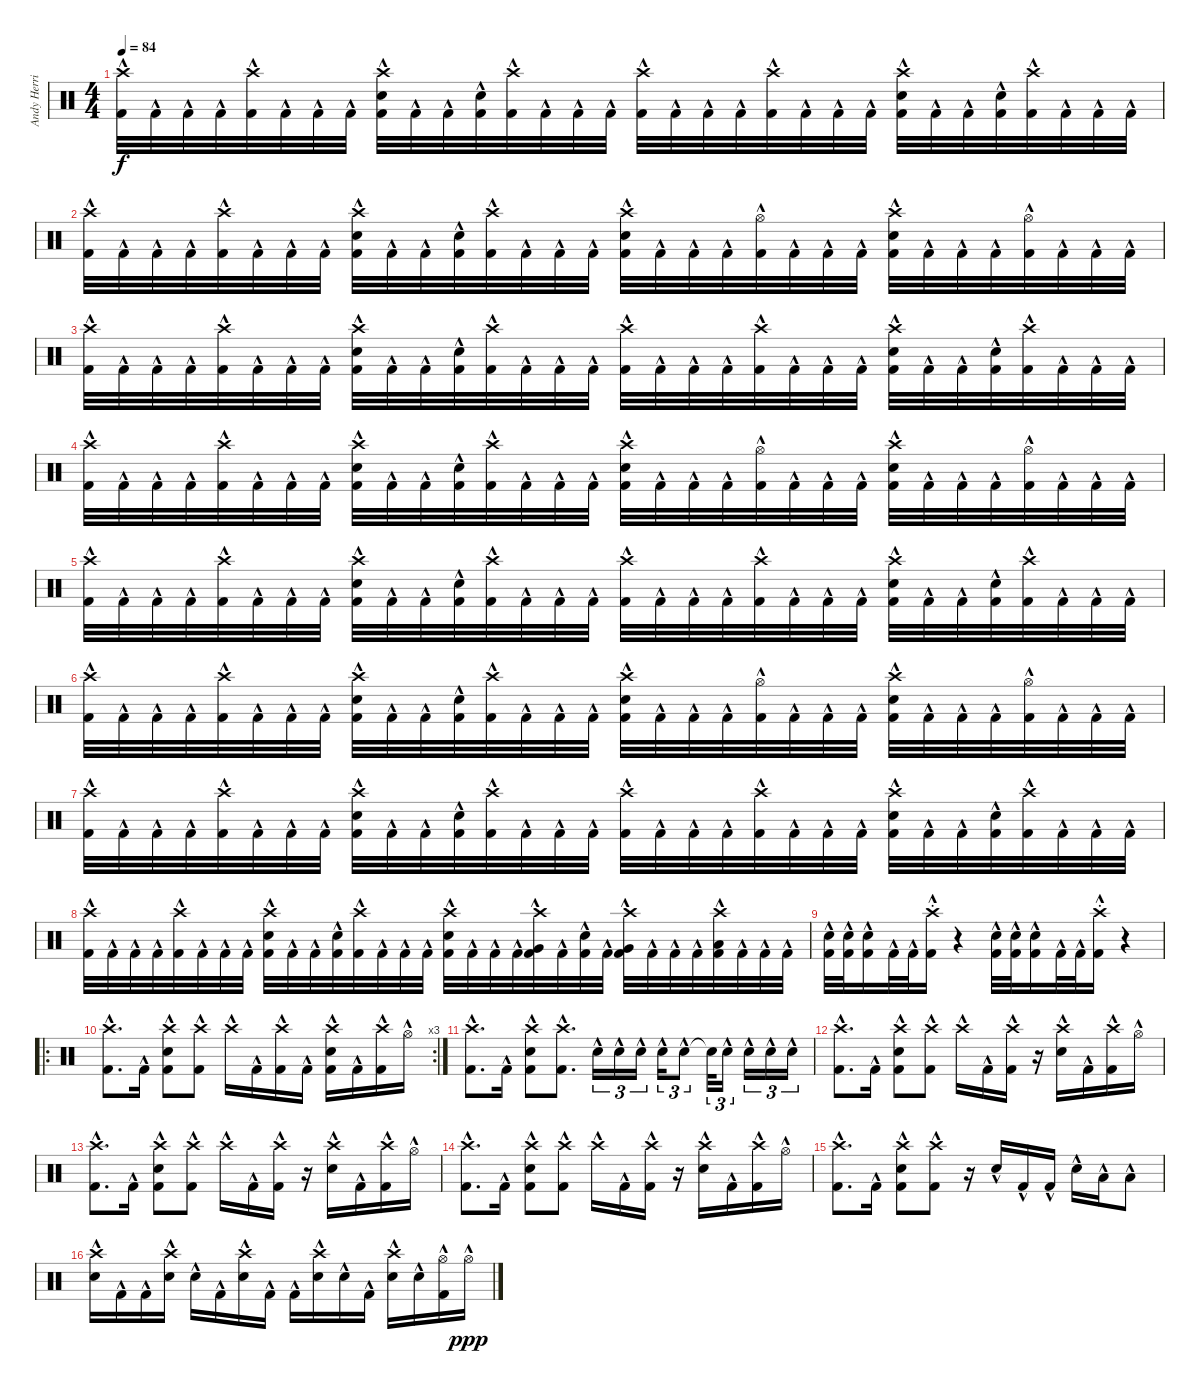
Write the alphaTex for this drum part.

\track ("Andy Herrick" "Andy Herri") {instrument percussion}
\staff {score}
\articulation defaults
\ts (4 4)
\tempo 84
\clef neutral
\ks c
("Crash high (hit)"{hac} "Kick (hit) 2"{hac}).32{dy f} "Kick (hit) 2"{hac}.32 "Kick (hit) 2"{hac}.32 "Kick (hit) 2"{hac}.32 ("Crash high (hit)"{hac} "Kick (hit) 2"{hac}).32 "Kick (hit) 2"{hac}.32 "Kick (hit) 2"{hac}.32 "Kick (hit) 2"{hac}.32 ("Crash high (hit)"{hac} "Electric Snare (hit)"{hac} "Kick (hit) 2"{hac}).32 "Kick (hit) 2"{hac}.32 "Kick (hit) 2"{hac}.32 ("Electric Snare (hit)"{hac} "Kick (hit) 2"{hac}).32 ("Crash high (hit)"{hac} "Kick (hit) 2"{hac}).32 "Kick (hit) 2"{hac}.32 "Kick (hit) 2"{hac}.32 "Kick (hit) 2"{hac}.32 ("Crash high (hit)"{hac} "Kick (hit) 2"{hac}).32 "Kick (hit) 2"{hac}.32 "Kick (hit) 2"{hac}.32 "Kick (hit) 2"{hac}.32 ("Crash high (hit)"{hac} "Kick (hit) 2"{hac}).32 "Kick (hit) 2"{hac}.32 "Kick (hit) 2"{hac}.32 "Kick (hit) 2"{hac}.32 ("Crash high (hit)"{hac} "Electric Snare (hit)"{hac} "Kick (hit) 2"{hac}).32 "Kick (hit) 2"{hac}.32 "Kick (hit) 2"{hac}.32 ("Electric Snare (hit)"{hac} "Kick (hit) 2"{hac}).32 ("Crash high (hit)"{hac} "Kick (hit) 2"{hac}).32 "Kick (hit) 2"{hac}.32 "Kick (hit) 2"{hac}.32 "Kick (hit) 2"{hac}.32 |
("Crash high (hit)"{hac} "Kick (hit) 2"{hac}).32 "Kick (hit) 2"{hac}.32 "Kick (hit) 2"{hac}.32 "Kick (hit) 2"{hac}.32 ("Crash high (hit)"{hac} "Kick (hit) 2"{hac}).32 "Kick (hit) 2"{hac}.32 "Kick (hit) 2"{hac}.32 "Kick (hit) 2"{hac}.32 ("Crash high (hit)"{hac} "Electric Snare (hit)"{hac} "Kick (hit) 2"{hac}).32 "Kick (hit) 2"{hac}.32 "Kick (hit) 2"{hac}.32 ("Electric Snare (hit)"{hac} "Kick (hit) 2"{hac}).32 ("Crash high (hit)"{hac} "Kick (hit) 2"{hac}).32 "Kick (hit) 2"{hac}.32 "Kick (hit) 2"{hac}.32 "Kick (hit) 2"{hac}.32 ("Crash high (hit)"{hac} "Electric Snare (hit)"{hac} "Kick (hit) 2"{hac}).32 "Kick (hit) 2"{hac}.32 "Kick (hit) 2"{hac}.32 "Kick (hit) 2"{hac}.32 ("Hi-Hat (open)"{hac} "Kick (hit) 2"{hac}).32 "Kick (hit) 2"{hac}.32 "Kick (hit) 2"{hac}.32 "Kick (hit) 2"{hac}.32 ("Crash high (hit)"{hac} "Electric Snare (hit)"{hac} "Kick (hit) 2"{hac}).32 "Kick (hit) 2"{hac}.32 "Kick (hit) 2"{hac}.32 "Kick (hit) 2"{hac}.32 ("Hi-Hat (open)"{hac} "Kick (hit) 2"{hac}).32 "Kick (hit) 2"{hac}.32 "Kick (hit) 2"{hac}.32 "Kick (hit) 2"{hac}.32 |
("Crash high (hit)"{hac} "Kick (hit) 2"{hac}).32 "Kick (hit) 2"{hac}.32 "Kick (hit) 2"{hac}.32 "Kick (hit) 2"{hac}.32 ("Crash high (hit)"{hac} "Kick (hit) 2"{hac}).32 "Kick (hit) 2"{hac}.32 "Kick (hit) 2"{hac}.32 "Kick (hit) 2"{hac}.32 ("Crash high (hit)"{hac} "Electric Snare (hit)"{hac} "Kick (hit) 2"{hac}).32 "Kick (hit) 2"{hac}.32 "Kick (hit) 2"{hac}.32 ("Electric Snare (hit)"{hac} "Kick (hit) 2"{hac}).32 ("Crash high (hit)"{hac} "Kick (hit) 2"{hac}).32 "Kick (hit) 2"{hac}.32 "Kick (hit) 2"{hac}.32 "Kick (hit) 2"{hac}.32 ("Crash high (hit)"{hac} "Kick (hit) 2"{hac}).32 "Kick (hit) 2"{hac}.32 "Kick (hit) 2"{hac}.32 "Kick (hit) 2"{hac}.32 ("Crash high (hit)"{hac} "Kick (hit) 2"{hac}).32 "Kick (hit) 2"{hac}.32 "Kick (hit) 2"{hac}.32 "Kick (hit) 2"{hac}.32 ("Crash high (hit)"{hac} "Electric Snare (hit)"{hac} "Kick (hit) 2"{hac}).32 "Kick (hit) 2"{hac}.32 "Kick (hit) 2"{hac}.32 ("Electric Snare (hit)"{hac} "Kick (hit) 2"{hac}).32 ("Crash high (hit)"{hac} "Kick (hit) 2"{hac}).32 "Kick (hit) 2"{hac}.32 "Kick (hit) 2"{hac}.32 "Kick (hit) 2"{hac}.32 |
("Crash high (hit)"{hac} "Kick (hit) 2"{hac}).32 "Kick (hit) 2"{hac}.32 "Kick (hit) 2"{hac}.32 "Kick (hit) 2"{hac}.32 ("Crash high (hit)"{hac} "Kick (hit) 2"{hac}).32 "Kick (hit) 2"{hac}.32 "Kick (hit) 2"{hac}.32 "Kick (hit) 2"{hac}.32 ("Crash high (hit)"{hac} "Electric Snare (hit)"{hac} "Kick (hit) 2"{hac}).32 "Kick (hit) 2"{hac}.32 "Kick (hit) 2"{hac}.32 ("Electric Snare (hit)"{hac} "Kick (hit) 2"{hac}).32 ("Crash high (hit)"{hac} "Kick (hit) 2"{hac}).32 "Kick (hit) 2"{hac}.32 "Kick (hit) 2"{hac}.32 "Kick (hit) 2"{hac}.32 ("Crash high (hit)"{hac} "Electric Snare (hit)"{hac} "Kick (hit) 2"{hac}).32 "Kick (hit) 2"{hac}.32 "Kick (hit) 2"{hac}.32 "Kick (hit) 2"{hac}.32 ("Hi-Hat (open)"{hac} "Kick (hit) 2"{hac}).32 "Kick (hit) 2"{hac}.32 "Kick (hit) 2"{hac}.32 "Kick (hit) 2"{hac}.32 ("Crash high (hit)"{hac} "Electric Snare (hit)"{hac} "Kick (hit) 2"{hac}).32 "Kick (hit) 2"{hac}.32 "Kick (hit) 2"{hac}.32 "Kick (hit) 2"{hac}.32 ("Hi-Hat (open)"{hac} "Kick (hit) 2"{hac}).32 "Kick (hit) 2"{hac}.32 "Kick (hit) 2"{hac}.32 "Kick (hit) 2"{hac}.32 |
("Crash high (hit)"{hac} "Kick (hit) 2"{hac}).32 "Kick (hit) 2"{hac}.32 "Kick (hit) 2"{hac}.32 "Kick (hit) 2"{hac}.32 ("Crash high (hit)"{hac} "Kick (hit) 2"{hac}).32 "Kick (hit) 2"{hac}.32 "Kick (hit) 2"{hac}.32 "Kick (hit) 2"{hac}.32 ("Crash high (hit)"{hac} "Electric Snare (hit)"{hac} "Kick (hit) 2"{hac}).32 "Kick (hit) 2"{hac}.32 "Kick (hit) 2"{hac}.32 ("Electric Snare (hit)"{hac} "Kick (hit) 2"{hac}).32 ("Crash high (hit)"{hac} "Kick (hit) 2"{hac}).32 "Kick (hit) 2"{hac}.32 "Kick (hit) 2"{hac}.32 "Kick (hit) 2"{hac}.32 ("Crash high (hit)"{hac} "Kick (hit) 2"{hac}).32 "Kick (hit) 2"{hac}.32 "Kick (hit) 2"{hac}.32 "Kick (hit) 2"{hac}.32 ("Crash high (hit)"{hac} "Kick (hit) 2"{hac}).32 "Kick (hit) 2"{hac}.32 "Kick (hit) 2"{hac}.32 "Kick (hit) 2"{hac}.32 ("Crash high (hit)"{hac} "Electric Snare (hit)"{hac} "Kick (hit) 2"{hac}).32 "Kick (hit) 2"{hac}.32 "Kick (hit) 2"{hac}.32 ("Electric Snare (hit)"{hac} "Kick (hit) 2"{hac}).32 ("Crash high (hit)"{hac} "Kick (hit) 2"{hac}).32 "Kick (hit) 2"{hac}.32 "Kick (hit) 2"{hac}.32 "Kick (hit) 2"{hac}.32 |
("Crash high (hit)"{hac} "Kick (hit) 2"{hac}).32 "Kick (hit) 2"{hac}.32 "Kick (hit) 2"{hac}.32 "Kick (hit) 2"{hac}.32 ("Crash high (hit)"{hac} "Kick (hit) 2"{hac}).32 "Kick (hit) 2"{hac}.32 "Kick (hit) 2"{hac}.32 "Kick (hit) 2"{hac}.32 ("Crash high (hit)"{hac} "Electric Snare (hit)"{hac} "Kick (hit) 2"{hac}).32 "Kick (hit) 2"{hac}.32 "Kick (hit) 2"{hac}.32 ("Electric Snare (hit)"{hac} "Kick (hit) 2"{hac}).32 ("Crash high (hit)"{hac} "Kick (hit) 2"{hac}).32 "Kick (hit) 2"{hac}.32 "Kick (hit) 2"{hac}.32 "Kick (hit) 2"{hac}.32 ("Crash high (hit)"{hac} "Electric Snare (hit)"{hac} "Kick (hit) 2"{hac}).32 "Kick (hit) 2"{hac}.32 "Kick (hit) 2"{hac}.32 "Kick (hit) 2"{hac}.32 ("Hi-Hat (open)"{hac} "Kick (hit) 2"{hac}).32 "Kick (hit) 2"{hac}.32 "Kick (hit) 2"{hac}.32 "Kick (hit) 2"{hac}.32 ("Crash high (hit)"{hac} "Electric Snare (hit)"{hac} "Kick (hit) 2"{hac}).32 "Kick (hit) 2"{hac}.32 "Kick (hit) 2"{hac}.32 "Kick (hit) 2"{hac}.32 ("Hi-Hat (open)"{hac} "Kick (hit) 2"{hac}).32 "Kick (hit) 2"{hac}.32 "Kick (hit) 2"{hac}.32 "Kick (hit) 2"{hac}.32 |
("Crash high (hit)"{hac} "Kick (hit) 2"{hac}).32 "Kick (hit) 2"{hac}.32 "Kick (hit) 2"{hac}.32 "Kick (hit) 2"{hac}.32 ("Crash high (hit)"{hac} "Kick (hit) 2"{hac}).32 "Kick (hit) 2"{hac}.32 "Kick (hit) 2"{hac}.32 "Kick (hit) 2"{hac}.32 ("Crash high (hit)"{hac} "Electric Snare (hit)"{hac} "Kick (hit) 2"{hac}).32 "Kick (hit) 2"{hac}.32 "Kick (hit) 2"{hac}.32 ("Electric Snare (hit)"{hac} "Kick (hit) 2"{hac}).32 ("Crash high (hit)"{hac} "Kick (hit) 2"{hac}).32 "Kick (hit) 2"{hac}.32 "Kick (hit) 2"{hac}.32 "Kick (hit) 2"{hac}.32 ("Crash high (hit)"{hac} "Kick (hit) 2"{hac}).32 "Kick (hit) 2"{hac}.32 "Kick (hit) 2"{hac}.32 "Kick (hit) 2"{hac}.32 ("Crash high (hit)"{hac} "Kick (hit) 2"{hac}).32 "Kick (hit) 2"{hac}.32 "Kick (hit) 2"{hac}.32 "Kick (hit) 2"{hac}.32 ("Crash high (hit)"{hac} "Electric Snare (hit)"{hac} "Kick (hit) 2"{hac}).32 "Kick (hit) 2"{hac}.32 "Kick (hit) 2"{hac}.32 ("Electric Snare (hit)"{hac} "Kick (hit) 2"{hac}).32 ("Crash high (hit)"{hac} "Kick (hit) 2"{hac}).32 "Kick (hit) 2"{hac}.32 "Kick (hit) 2"{hac}.32 "Kick (hit) 2"{hac}.32 |
("Crash high (hit)"{hac} "Kick (hit) 2"{hac}).32 "Kick (hit) 2"{hac}.32 "Kick (hit) 2"{hac}.32 "Kick (hit) 2"{hac}.32 ("Crash high (hit)"{hac} "Kick (hit) 2"{hac}).32 "Kick (hit) 2"{hac}.32 "Kick (hit) 2"{hac}.32 "Kick (hit) 2"{hac}.32 ("Crash high (hit)"{hac} "Electric Snare (hit)"{hac} "Kick (hit) 2"{hac}).32 "Kick (hit) 2"{hac}.32 "Kick (hit) 2"{hac}.32 ("Electric Snare (hit)"{hac} "Kick (hit) 2"{hac}).32 ("Crash high (hit)"{hac} "Kick (hit) 2"{hac}).32 "Kick (hit) 2"{hac}.32 "Kick (hit) 2"{hac}.32 "Kick (hit) 2"{hac}.32 ("Crash high (hit)"{hac} "Electric Snare (hit)"{hac} "Kick (hit) 2"{hac}).32 "Kick (hit) 2"{hac}.32 "Kick (hit) 2"{hac}.32 "Kick (hit) 2"{hac}.32 ("Crash high (hit)"{hac} "Very Low Tom (hit)"{hac} "Kick (hit) 2"{hac}).32 "Kick (hit) 2"{hac}.32 ("Electric Snare (hit)"{hac} "Kick (hit) 2"{hac}).32 "Kick (hit) 2"{hac}.32 ("Crash high (hit)"{hac} "Very Low Tom (hit)"{hac} "Kick (hit) 2"{hac}).32 "Kick (hit) 2"{hac}.32 "Kick (hit) 2"{hac}.32 "Kick (hit) 2"{hac}.32 ("Crash high (hit)"{hac} "Low Floor Tom (hit)"{hac} "Kick (hit) 2"{hac}).32 "Kick (hit) 2"{hac}.32 "Kick (hit) 2"{hac}.32 "Kick (hit) 2"{hac}.32 |
("Electric Snare (hit)"{hac} "Kick (hit) 2"{hac}).32 ("Electric Snare (hit)"{hac} "Kick (hit) 2"{hac}).32 ("Electric Snare (hit)"{hac} "Kick (hit) 2"{hac}).16 "Kick (hit) 2"{hac}.32 "Kick (hit) 2"{hac}.32 ("Crash high (hit)"{hac st} "Kick (hit) 2"{hac}).16 r.4 ("Electric Snare (hit)"{hac} "Kick (hit) 2"{hac}).32 ("Electric Snare (hit)"{hac} "Kick (hit) 2"{hac}).32 ("Electric Snare (hit)"{hac} "Kick (hit) 2"{hac}).16 "Kick (hit) 2"{hac}.32 "Kick (hit) 2"{hac}.32 ("Crash high (hit)"{hac st} "Kick (hit) 2"{hac}).16 r.4 |
\ro
\rc 3
("Crash high (hit)"{hac} "Kick (hit) 2"{hac}).8{d} "Kick (hit) 2"{hac}.16 ("Crash high (hit)"{hac} "Electric Snare (hit)"{hac} "Kick (hit) 2"{hac}).8 ("Crash high (hit)"{hac} "Kick (hit) 2"{hac}).8 "Crash high (hit)"{hac}.16 "Kick (hit) 2"{hac}.16 ("Crash high (hit)"{hac} "Kick (hit) 2"{hac}).16 "Kick (hit) 2"{hac}.16 ("Crash high (hit)"{hac} "Electric Snare (hit)"{hac} "Kick (hit) 2"{hac}).16 "Kick (hit) 2"{hac}.16 ("Crash high (hit)"{hac} "Kick (hit) 2"{hac}).16 "Hi-Hat (open)"{hac}.16 |
("Crash high (hit)"{hac} "Kick (hit) 2"{hac}).8{d} "Kick (hit) 2"{hac}.16 ("Crash high (hit)"{hac} "Electric Snare (hit)"{hac} "Kick (hit) 2"{hac}).8 ("Crash high (hit)"{hac} "Kick (hit) 2"{hac}).8{d} "Electric Snare (hit)"{hac}.16{tu (3 2)} "Electric Snare (hit)"{hac}.16{tu (3 2)} "Electric Snare (hit)"{hac}.16{tu (3 2) beam splitsecondary} "Electric Snare (hit)"{hac}.16{tu (3 2)} "Electric Snare (hit)"{hac}.8{tu (3 2)} "Electric Snare (hit)"{t}.32{tu (3 2)} "Electric Snare (hit)"{hac}.16{tu (3 2) beam splitsecondary} "Electric Snare (hit)"{hac}.16{tu (3 2)} "Electric Snare (hit)"{hac}.16{tu (3 2)} "Electric Snare (hit)"{hac}.16{tu (3 2)} |
("Crash high (hit)"{hac} "Kick (hit) 2"{hac}).8{d} "Kick (hit) 2"{hac}.16 ("Crash high (hit)"{hac} "Electric Snare (hit)"{hac} "Kick (hit) 2"{hac}).8 ("Crash high (hit)"{hac} "Kick (hit) 2"{hac}).8 "Crash high (hit)"{hac}.16 "Kick (hit) 2"{hac}.16 ("Crash high (hit)"{hac} "Kick (hit) 2"{hac}).16 r.16 ("Crash high (hit)"{hac} "Electric Snare (hit)"{hac}).16 "Kick (hit) 2"{hac}.16 ("Crash high (hit)"{hac} "Kick (hit) 2"{hac}).16 "Hi-Hat (open)"{hac}.16 |
("Crash high (hit)"{hac} "Kick (hit) 2"{hac}).8{d} "Kick (hit) 2"{hac}.16 ("Crash high (hit)"{hac} "Electric Snare (hit)"{hac} "Kick (hit) 2"{hac}).8 ("Crash high (hit)"{hac} "Kick (hit) 2"{hac}).8 "Crash high (hit)"{hac}.16 "Kick (hit) 2"{hac}.16 ("Crash high (hit)"{hac} "Kick (hit) 2"{hac}).16 r.16 ("Crash high (hit)"{hac} "Electric Snare (hit)"{hac}).16 "Kick (hit) 2"{hac}.16 ("Crash high (hit)"{hac} "Kick (hit) 2"{hac}).16 "Hi-Hat (open)"{hac}.16 |
("Crash high (hit)"{hac} "Kick (hit) 2"{hac}).8{d} "Kick (hit) 2"{hac}.16 ("Crash high (hit)"{hac} "Electric Snare (hit)"{hac} "Kick (hit) 2"{hac}).8 ("Crash high (hit)"{hac} "Kick (hit) 2"{hac}).8 "Crash high (hit)"{hac}.16 "Kick (hit) 2"{hac}.16 ("Crash high (hit)"{hac} "Kick (hit) 2"{hac}).16 r.16 ("Crash high (hit)"{hac} "Electric Snare (hit)"{hac}).16 "Kick (hit) 2"{hac}.16 ("Crash high (hit)"{hac} "Kick (hit) 2"{hac}).16 "Hi-Hat (open)"{hac}.16 |
("Crash high (hit)"{hac} "Kick (hit) 2"{hac}).8{d} "Kick (hit) 2"{hac}.16 ("Crash high (hit)"{hac} "Electric Snare (hit)"{hac} "Kick (hit) 2"{hac}).8 ("Crash high (hit)"{hac} "Kick (hit) 2"{hac}).8 r.16 "Electric Snare (hit)"{hac}.16 "Kick (hit) 2"{hac}.16 "Kick (hit) 2"{hac}.16 "Electric Snare (hit)"{hac}.16 "Low Tom (hit)"{hac}.16 "Low Floor Tom (hit)"{hac}.8 |
("Crash high (hit)"{hac} "Electric Snare (hit)"{hac}).16 "Kick (hit) 2"{hac}.16 "Kick (hit) 2"{hac}.16 ("Crash high (hit)"{hac} "Electric Snare (hit)"{hac}).16 "Electric Snare (hit)"{hac}.16 "Kick (hit) 2"{hac}.16 ("Crash high (hit)"{hac} "Electric Snare (hit)"{hac}).16 "Kick (hit) 2"{hac}.16 "Kick (hit) 2"{hac}.16 ("Crash high (hit)"{hac} "Electric Snare (hit)"{hac}).16 "Electric Snare (hit)"{hac}.16 "Kick (hit) 2"{hac}.16 ("Crash high (hit)"{hac} "Electric Snare (hit)"{hac}).16 "Electric Snare (hit)"{hac}.16 ("Hi-Hat (open)"{hac} "Kick (hit) 2"{hac}).16 "Hi-Hat (open)"{hac}.16{dy ppp}
